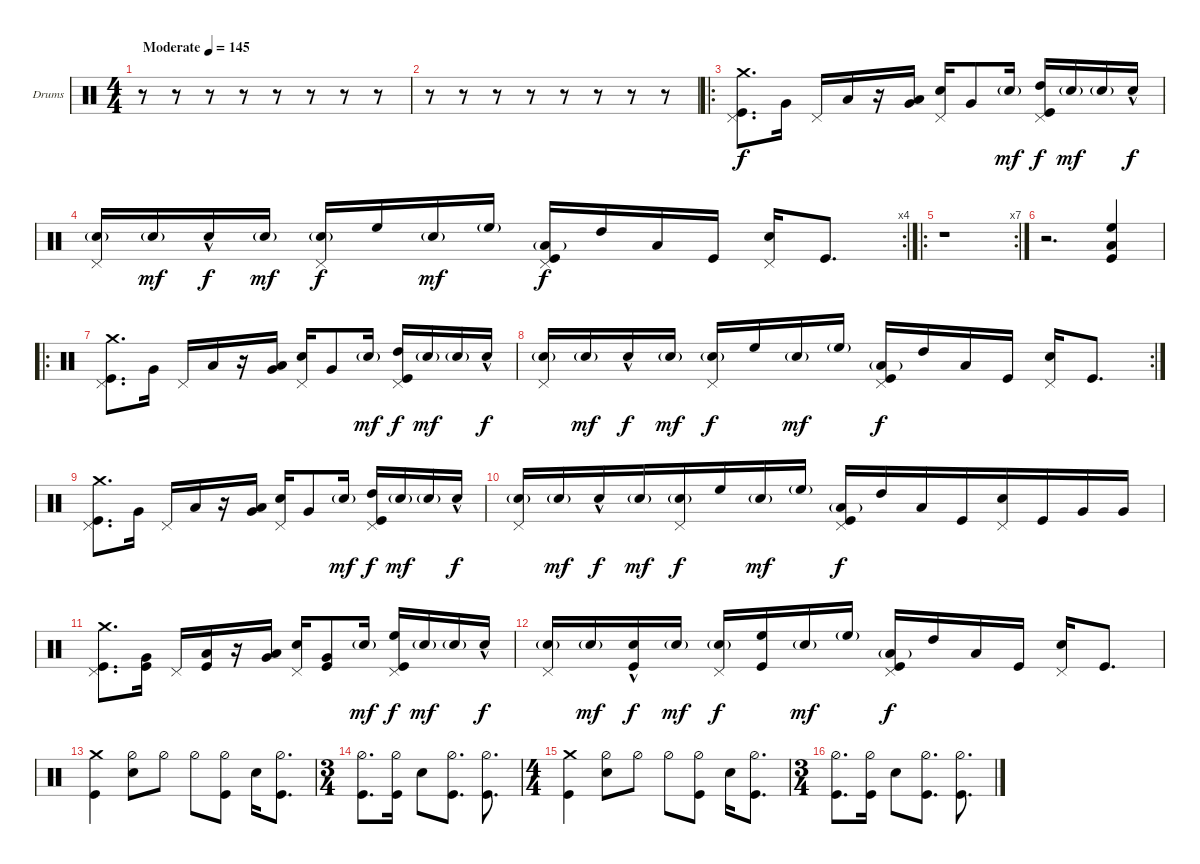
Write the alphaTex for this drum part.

\bracketExtendMode groupsimilarinstruments
\firstSystemTrackNameOrientation horizontal
\otherSystemsTrackNameOrientation horizontal
\track ("Drumkit" "Drums") {instrument percussion}
\staff {score}
\articulation defaults
\ts (4 4)
\beaming (8 2 2 2 2)
\tempo (145 "Moderate")
\clef neutral
\ks c
r.8{dy f} r.8 r.8 r.8 r.8 r.8 r.8 r.8 |
r.8 r.8 r.8 r.8 r.8 r.8 r.8 r.8 |
\ro
("Crash medium (hit)" "Kick (hit)" "Pedal Hi-Hat (hit)").8{d} "Very Low Tom (hit)".16 "Pedal Hi-Hat (hit)".16 "Low Tom (hit)".16 r.16 ("Low Tom (hit)" "Very Low Tom (hit)").16 ("Snare (hit) 2" "Pedal Hi-Hat (hit)").16 "Very Low Tom (hit)".8 "Snare (hit) 2"{g}.16{dy mf} ("High Tom (hit)" "Pedal Hi-Hat (hit)" "Kick (hit)").16{dy f} "Snare (hit) 2"{g}.16{dy mf} "Snare (hit) 2"{g}.16 "Snare (hit) 2"{hac}.16{dy f} |
\rc 4
("Snare (hit) 2"{g} "Pedal Hi-Hat (hit)").16 "Snare (hit) 2"{g}.16{dy mf} "Snare (hit) 2"{hac}.16{dy f} "Snare (hit) 2"{g}.16{dy mf} ("Snare (hit) 2"{g} "Pedal Hi-Hat (hit)").16{dy f} "High Floor Tom (hit)".16 "Snare (hit) 2"{g}.16{dy mf} "High Floor Tom (hit)"{g}.16 ("Low Tom (hit)"{g} "Pedal Hi-Hat (hit)" "Kick (hit)").16{dy f} "High Tom (hit)".16 "Low Tom (hit)".16 "Kick (hit)".16 ("Snare (hit) 2" "Pedal Hi-Hat (hit)").16 "Kick (hit)".8{d} |
\ro
\rc 7
r.1 |
r.2{d} ("High Floor Tom (hit)" "Low Tom (hit)" "Kick (hit)").4 |
\ro
("Crash medium (hit)" "Kick (hit)" "Pedal Hi-Hat (hit)").8{d} "Very Low Tom (hit)".16 "Pedal Hi-Hat (hit)".16 "Low Tom (hit)".16 r.16 ("Low Tom (hit)" "Very Low Tom (hit)").16 ("Snare (hit) 2" "Pedal Hi-Hat (hit)").16 "Very Low Tom (hit)".8 "Snare (hit) 2"{g}.16{dy mf} ("High Tom (hit)" "Pedal Hi-Hat (hit)" "Kick (hit)").16{dy f} "Snare (hit) 2"{g}.16{dy mf} "Snare (hit) 2"{g}.16 "Snare (hit) 2"{hac}.16{dy f} |
\rc 2
("Snare (hit) 2"{g} "Pedal Hi-Hat (hit)").16 "Snare (hit) 2"{g}.16{dy mf} "Snare (hit) 2"{hac}.16{dy f} "Snare (hit) 2"{g}.16{dy mf} ("Snare (hit) 2"{g} "Pedal Hi-Hat (hit)").16{dy f} "High Floor Tom (hit)".16 "Snare (hit) 2"{g}.16{dy mf} "High Floor Tom (hit)"{g}.16 ("Low Tom (hit)"{g} "Pedal Hi-Hat (hit)" "Kick (hit)").16{dy f} "High Tom (hit)".16 "Low Tom (hit)".16 "Kick (hit)".16 ("Snare (hit) 2" "Pedal Hi-Hat (hit)").16 "Kick (hit)".8{d} |
("Crash medium (hit)" "Kick (hit)" "Pedal Hi-Hat (hit)").8{d} "Very Low Tom (hit)".16 "Pedal Hi-Hat (hit)".16 "Low Tom (hit)".16 r.16 ("Low Tom (hit)" "Very Low Tom (hit)").16 ("Snare (hit) 2" "Pedal Hi-Hat (hit)").16 "Very Low Tom (hit)".8 "Snare (hit) 2"{g}.16{dy mf} ("High Tom (hit)" "Pedal Hi-Hat (hit)" "Kick (hit)").16{dy f} "Snare (hit) 2"{g}.16{dy mf} "Snare (hit) 2"{g}.16 "Snare (hit) 2"{hac}.16{dy f} |
\beaming (8 4 4 4 4)
("Snare (hit) 2"{g} "Pedal Hi-Hat (hit)").16 "Snare (hit) 2"{g}.16{dy mf} "Snare (hit) 2"{hac}.16{dy f} "Snare (hit) 2"{g}.16{dy mf} ("Snare (hit) 2"{g} "Pedal Hi-Hat (hit)").16{dy f} "High Floor Tom (hit)".16 "Snare (hit) 2"{g}.16{dy mf} "High Floor Tom (hit)"{g}.16 ("Low Tom (hit)"{g} "Pedal Hi-Hat (hit)" "Kick (hit)").16{dy f} "High Tom (hit)".16 "Low Tom (hit)".16 "Kick (hit)".16 ("Snare (hit) 2" "Pedal Hi-Hat (hit)").16 "Kick (hit)".16 "Very Low Tom (hit)".16 "Very Low Tom (hit)".16 |
\beaming (8 2 2 2 2)
("Crash medium (hit)" "Kick (hit)" "Pedal Hi-Hat (hit)").8{d} ("Very Low Tom (hit)" "Kick (hit)").16 "Pedal Hi-Hat (hit)".16 ("Kick (hit)" "Low Tom (hit)").16 r.16 ("Low Tom (hit)" "Very Low Tom (hit)").16 ("Snare (hit) 2" "Pedal Hi-Hat (hit)").16 ("Very Low Tom (hit)" "Kick (hit)").8 "Snare (hit) 2"{g}.16{dy mf} ("High Floor Tom (hit)" "Pedal Hi-Hat (hit)" "Kick (hit)").16{dy f} "Snare (hit) 2"{g}.16{dy mf} "Snare (hit) 2"{g}.16 "Snare (hit) 2"{hac}.16{dy f} |
("Snare (hit) 2"{g} "Pedal Hi-Hat (hit)").16 "Snare (hit) 2"{g}.16{dy mf} ("Snare (hit) 2"{hac} "Kick (hit)").16{dy f} "Snare (hit) 2"{g}.16{dy mf} ("Snare (hit) 2"{g} "Pedal Hi-Hat (hit)").16{dy f} ("High Floor Tom (hit)" "Kick (hit)").16 "Snare (hit) 2"{g}.16{dy mf} "High Floor Tom (hit)"{g}.16 ("Low Tom (hit)"{g} "Pedal Hi-Hat (hit)" "Kick (hit)").16{dy f} "High Tom (hit)".16 "Low Tom (hit)".16 "Kick (hit)".16 ("Snare (hit) 2" "Pedal Hi-Hat (hit)").16 "Kick (hit)".8{d} |
("Crash medium (hit)" "Kick (hit)").4 ("Hi-Hat (half)" "Snare (hit) 2").8 "Hi-Hat (half)".8 "Hi-Hat (half)".8 ("Hi-Hat (half)" "Kick (hit)").8 "Snare (hit) 2".16 ("Hi-Hat (half)" "Kick (hit)").8{d} |
\ts (3 4)
\beaming (8 2 2 2)
("Hi-Hat (half)" "Kick (hit)").8{d} ("Hi-Hat (half)" "Kick (hit)").16 "Snare (hit) 2".8 ("Hi-Hat (half)" "Kick (hit)").8{d} ("Hi-Hat (half)" "Kick (hit)").8{d} |
\ts (4 4)
\beaming (8 2 2 2 2)
("Crash medium (hit)" "Kick (hit)").4 ("Snare (hit) 2" "Hi-Hat (half)").8 "Hi-Hat (half)".8 "Hi-Hat (half)".8 ("Hi-Hat (half)" "Kick (hit)").8 "Snare (hit) 2".16 ("Hi-Hat (half)" "Kick (hit)").8{d} |
\ts (3 4)
\beaming (8 2 2 2)
("Hi-Hat (half)" "Kick (hit)").8{d} ("Hi-Hat (half)" "Kick (hit)").16 "Snare (hit) 2".8 ("Hi-Hat (half)" "Kick (hit)").8{d} ("Hi-Hat (half)" "Kick (hit)").8{d}
